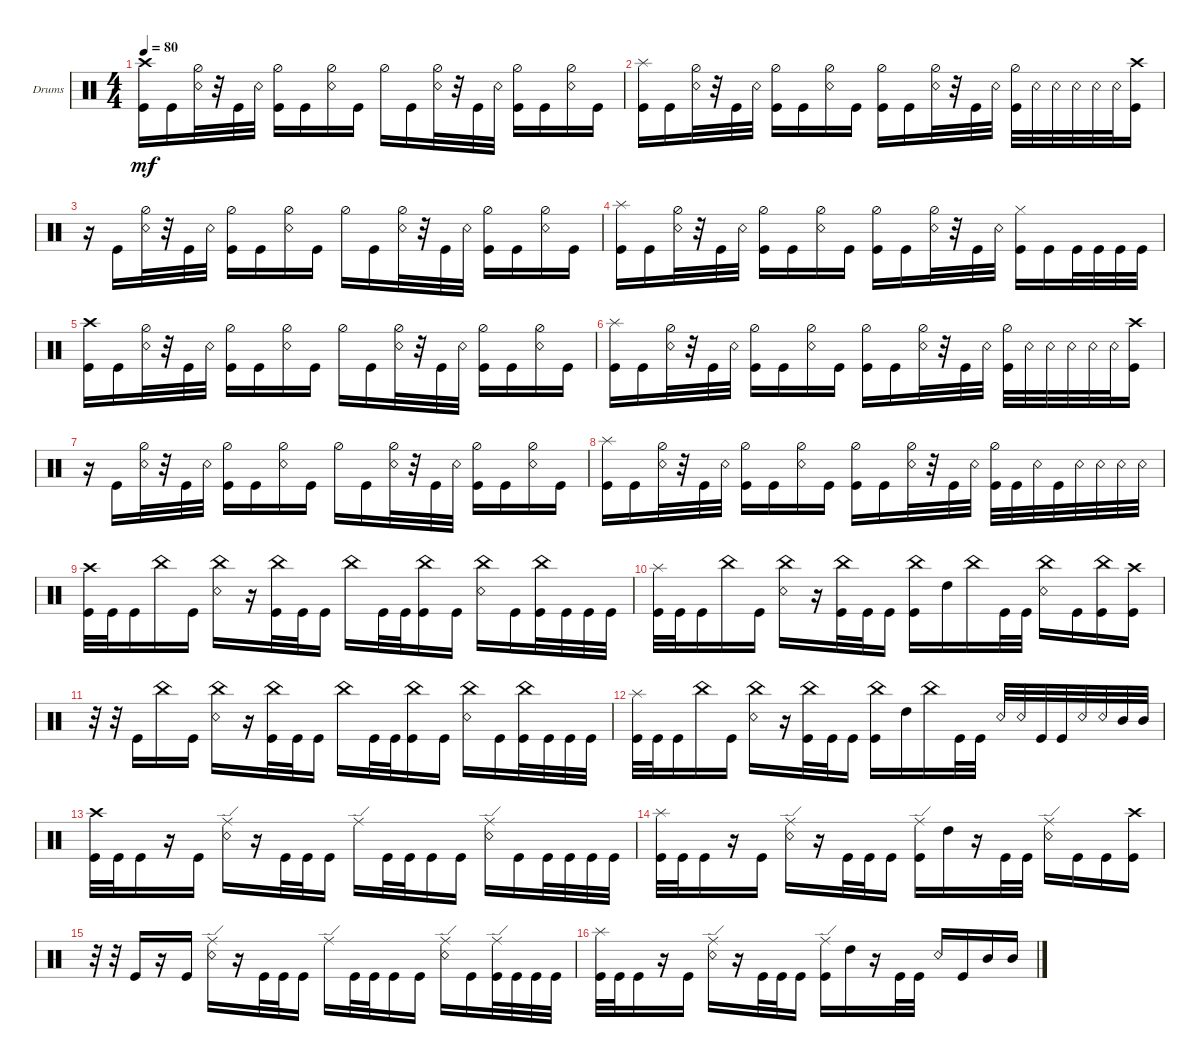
\defaultSystemsLayout 4
\bracketExtendMode groupsimilarinstruments
\firstSystemTrackNameOrientation horizontal
\otherSystemsTrackNameOrientation horizontal
\track ("Drumkit" "Drums") {instrument percussion}
\staff {score}
\articulation defaults
\ts (4 4)
\tempo 80
\clef neutral
\ks c
("Kick (hit)" "Crash high (hit)").16{dy mf} "Kick (hit)".16 ("Snare (rim shot)" "Hi-Hat (half)").32 r.32 "Kick (hit)".32 "Snare (rim shot)".32 ("Kick (hit)" "Hi-Hat (half)").16 "Kick (hit)".16 ("Snare (rim shot)" "Hi-Hat (half)").16 "Kick (hit)".16 "Hi-Hat (half)".16 "Kick (hit)".16 ("Snare (rim shot)" "Hi-Hat (half)").32 r.32 "Kick (hit)".32 "Snare (rim shot)".32 ("Kick (hit)" "Hi-Hat (half)").16 "Kick (hit)".16 ("Snare (rim shot)" "Hi-Hat (half)").16 "Kick (hit)".16 |
("Kick (hit)" "Splash (hit)").16 "Kick (hit)".16 ("Snare (rim shot)" "Hi-Hat (half)").32 r.32 "Kick (hit)".32 "Snare (rim shot)".32 ("Kick (hit)" "Hi-Hat (half)").16 "Kick (hit)".16 ("Snare (rim shot)" "Hi-Hat (half)").16 "Kick (hit)".16 ("Hi-Hat (half)" "Kick (hit)").16 "Kick (hit)".16 ("Snare (rim shot)" "Hi-Hat (half)").32 r.32 "Kick (hit)".32 "Snare (rim shot)".32 ("Kick (hit)" "Hi-Hat (half)").32 "Snare (rim shot)".32 "Snare (rim shot)".32 "Snare (rim shot)".32 "Snare (rim shot)".32 "Snare (rim shot)".32 ("Kick (hit)" "Crash high (hit)").16 |
r.16 "Kick (hit)".16 ("Snare (rim shot)" "Hi-Hat (half)").32 r.32 "Kick (hit)".32 "Snare (rim shot)".32 ("Kick (hit)" "Hi-Hat (half)").16 "Kick (hit)".16 ("Snare (rim shot)" "Hi-Hat (half)").16 "Kick (hit)".16 "Hi-Hat (half)".16 "Kick (hit)".16 ("Snare (rim shot)" "Hi-Hat (half)").32 r.32 "Kick (hit)".32 "Snare (rim shot)".32 ("Kick (hit)" "Hi-Hat (half)").16 "Kick (hit)".16 ("Snare (rim shot)" "Hi-Hat (half)").16 "Kick (hit)".16 |
("Kick (hit)" "Splash (hit)").16 "Kick (hit)".16 ("Snare (rim shot)" "Hi-Hat (half)").32 r.32 "Kick (hit)".32 "Snare (rim shot)".32 ("Kick (hit)" "Hi-Hat (half)").16 "Kick (hit)".16 ("Snare (rim shot)" "Hi-Hat (half)").16 "Kick (hit)".16 ("Hi-Hat (half)" "Kick (hit)").16 "Kick (hit)".16 ("Snare (rim shot)" "Hi-Hat (half)").32 r.32 "Kick (hit)".32 "Snare (rim shot)".32 ("Kick (hit)" "Hi-Hat (closed)").16 "Kick (hit)".16 "Kick (hit)".32 "Kick (hit)".32 "Kick (hit)".32 "Kick (hit)".32 |
("Kick (hit)" "Crash high (hit)").16 "Kick (hit)".16 ("Snare (rim shot)" "Hi-Hat (half)").32 r.32 "Kick (hit)".32 "Snare (rim shot)".32 ("Kick (hit)" "Hi-Hat (half)").16 "Kick (hit)".16 ("Snare (rim shot)" "Hi-Hat (half)").16 "Kick (hit)".16 "Hi-Hat (half)".16 "Kick (hit)".16 ("Snare (rim shot)" "Hi-Hat (half)").32 r.32 "Kick (hit)".32 "Snare (rim shot)".32 ("Kick (hit)" "Hi-Hat (half)").16 "Kick (hit)".16 ("Snare (rim shot)" "Hi-Hat (half)").16 "Kick (hit)".16 |
("Kick (hit)" "Splash (hit)").16 "Kick (hit)".16 ("Snare (rim shot)" "Hi-Hat (half)").32 r.32 "Kick (hit)".32 "Snare (rim shot)".32 ("Kick (hit)" "Hi-Hat (half)").16 "Kick (hit)".16 ("Snare (rim shot)" "Hi-Hat (half)").16 "Kick (hit)".16 ("Hi-Hat (half)" "Kick (hit)").16 "Kick (hit)".16 ("Snare (rim shot)" "Hi-Hat (half)").32 r.32 "Kick (hit)".32 "Snare (rim shot)".32 ("Kick (hit)" "Hi-Hat (half)").32 "Snare (rim shot)".32 "Snare (rim shot)".32 "Snare (rim shot)".32 "Snare (rim shot)".32 "Snare (rim shot)".32 ("Kick (hit)" "Crash high (hit)").16 |
r.16 "Kick (hit)".16 ("Snare (rim shot)" "Hi-Hat (half)").32 r.32 "Kick (hit)".32 "Snare (rim shot)".32 ("Kick (hit)" "Hi-Hat (half)").16 "Kick (hit)".16 ("Snare (rim shot)" "Hi-Hat (half)").16 "Kick (hit)".16 "Hi-Hat (half)".16 "Kick (hit)".16 ("Snare (rim shot)" "Hi-Hat (half)").32 r.32 "Kick (hit)".32 "Snare (rim shot)".32 ("Kick (hit)" "Hi-Hat (half)").16 "Kick (hit)".16 ("Snare (rim shot)" "Hi-Hat (half)").16 "Kick (hit)".16 |
("Kick (hit)" "Splash (hit)").16 "Kick (hit)".16 ("Snare (rim shot)" "Hi-Hat (half)").32 r.32 "Kick (hit)".32 "Snare (rim shot)".32 ("Kick (hit)" "Hi-Hat (half)").16 "Kick (hit)".16 ("Snare (rim shot)" "Hi-Hat (half)").16 "Kick (hit)".16 ("Hi-Hat (half)" "Kick (hit)").16 "Kick (hit)".16 ("Snare (rim shot)" "Hi-Hat (half)").32 r.32 "Kick (hit)".32 "Snare (rim shot)".32 ("Kick (hit)" "Hi-Hat (half)").32 "Kick (hit)".32 "Snare (rim shot)".32 "Kick (hit)".32 "Snare (rim shot)".32 "Snare (rim shot)".32 "Snare (rim shot)".32 "Snare (rim shot)".32 |
("Kick (hit)" "Crash high (hit)").32 "Kick (hit)".32 "Kick (hit)".16 "China (hit)".16 "Kick (hit)".16 ("Snare (rim shot)" "China (hit)").16 r.16 ("Kick (hit)" "China (hit)").32 "Kick (hit)".32 "Kick (hit)".16 "China (hit)".16 "Kick (hit)".32 "Kick (hit)".32 ("China (hit)" "Kick (hit)").16 "Kick (hit)".16 ("Snare (rim shot)" "China (hit)").16 "Kick (hit)".16 ("Kick (hit)" "China (hit)").32 "Kick (hit)".32 "Kick (hit)".32 "Kick (hit)".32 |
("Kick (hit)" "Splash (hit)").32 "Kick (hit)".32 "Kick (hit)".16 "China (hit)".16 "Kick (hit)".16 ("Snare (rim shot)" "China (hit)").16 r.16 ("Kick (hit)" "China (hit)").32 "Kick (hit)".32 "Kick (hit)".16 ("China (hit)" "Kick (hit)").16 "High Tom (hit)".16 "China (hit)".16 "Kick (hit)".32 "Kick (hit)".32 ("Snare (rim shot)" "China (hit)").16 "Kick (hit)".16 ("Kick (hit)" "China (hit)").16 ("Kick (hit)" "Crash high (hit)").16 |
r.32 r.32 "Kick (hit)".16 "China (hit)".16 "Kick (hit)".16 ("Snare (rim shot)" "China (hit)").16 r.16 ("Kick (hit)" "China (hit)").32 "Kick (hit)".32 "Kick (hit)".16 "China (hit)".16 "Kick (hit)".32 "Kick (hit)".32 ("China (hit)" "Kick (hit)").16 "Kick (hit)".16 ("Snare (rim shot)" "China (hit)").16 "Kick (hit)".16 ("Kick (hit)" "China (hit)").32 "Kick (hit)".32 "Kick (hit)".32 "Kick (hit)".32 |
("Kick (hit)" "Splash (hit)").32 "Kick (hit)".32 "Kick (hit)".16 "China (hit)".16 "Kick (hit)".16 ("Snare (rim shot)" "China (hit)").16 r.16 ("Kick (hit)" "China (hit)").32 "Kick (hit)".32 "Kick (hit)".16 ("China (hit)" "Kick (hit)").16 "High Tom (hit)".16 "China (hit)".16 "Kick (hit)".32 "Kick (hit)".32 "Snare (rim shot)".32 "Snare (rim shot)".32 "Kick (hit)".32 "Kick (hit)".32 "Snare (rim shot)".32 "Snare (rim shot)".32 "Mid Tom (hit)".32 "Mid Tom (hit)".32 |
("Kick (hit)" "Crash high (hit)").32 "Kick (hit)".32 "Kick (hit)".16 r.16 "Kick (hit)".16 ("Snare (rim shot)" "Ride (edge)").16 r.16 "Kick (hit)".32 "Kick (hit)".32 "Kick (hit)".16 "Ride (edge)".16 "Kick (hit)".32 "Kick (hit)".32 "Kick (hit)".16 "Kick (hit)".16 ("Snare (rim shot)" "Ride (edge)").16 "Kick (hit)".16 "Kick (hit)".32 "Kick (hit)".32 "Kick (hit)".32 "Kick (hit)".32 |
("Kick (hit)" "Splash (hit)").32 "Kick (hit)".32 "Kick (hit)".16 r.16 "Kick (hit)".16 ("Snare (rim shot)" "Ride (edge)").16 r.16 "Kick (hit)".32 "Kick (hit)".32 "Kick (hit)".16 ("Kick (hit)" "Ride (edge)").16 "High Tom (hit)".16 r.16 "Kick (hit)".32 "Kick (hit)".32 ("Snare (rim shot)" "Ride (edge)").16 "Kick (hit)".16 "Kick (hit)".16 ("Kick (hit)" "Crash high (hit)").16 |
r.32 r.32 "Kick (hit)".16 r.16 "Kick (hit)".16 ("Snare (rim shot)" "Ride (edge)").16 r.16 "Kick (hit)".32 "Kick (hit)".32 "Kick (hit)".16 "Ride (edge)".16 "Kick (hit)".32 "Kick (hit)".32 "Kick (hit)".16 "Kick (hit)".16 ("Snare (rim shot)" "Ride (edge)").16 "Kick (hit)".16 ("Kick (hit)" "Ride (edge)").32 "Kick (hit)".32 "Kick (hit)".32 "Kick (hit)".32 |
("Kick (hit)" "Splash (hit)").32 "Kick (hit)".32 "Kick (hit)".16 r.16 "Kick (hit)".16 ("Snare (rim shot)" "Ride (edge)").16 r.16 "Kick (hit)".32 "Kick (hit)".32 "Kick (hit)".16 ("Kick (hit)" "Ride (edge)").16 "High Tom (hit)".16 r.16 "Kick (hit)".32 "Kick (hit)".32 "Snare (rim shot)".16 "Kick (hit)".16 "Mid Tom (hit)".16 "Mid Tom (hit)".16
